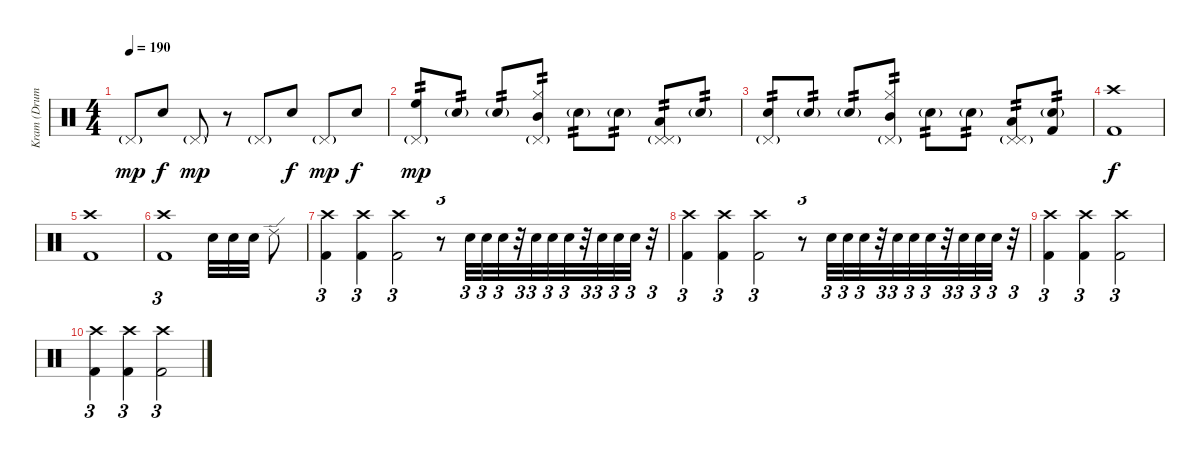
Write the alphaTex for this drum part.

\track ("Kram (Drums)" "Kram (Drum") {instrument percussion}
\staff {score}
\articulation defaults
\ts (4 4)
\tempo 190
\clef neutral
\ks c "Pedal Hi-Hat (hit)"{g}.8{dy mp} "Electric Snare (hit)".8{dy f} "Pedal Hi-Hat (hit)"{g}.8{dy mp}
r.8 "Pedal Hi-Hat (hit)"{g}.8 "Electric Snare (hit)".8{dy f} "Pedal Hi-Hat (hit)"{g}.8{dy mp} "Electric Snare (hit)".8{dy f} |
("High Floor Tom (hit)" "Pedal Hi-Hat (hit)"{g}).8{tp 2 dy mp volume 3} "Electric Snare (hit)"{g}.8{tp 2} "Electric Snare (hit)"{g}.8{tp 2} ("Hi-Hat (closed)" "Mid Tom (hit)" "Pedal Hi-Hat (hit)"{g}).8{tp 2} "Electric Snare (hit)"{g}.8{tp 2 volume 7} "Electric Snare (hit)"{g}.8{tp 2} ("Pedal Hi-Hat (hit)" "Low Tom (hit)" "Pedal Hi-Hat (hit)"{g}).8{tp 2} "Electric Snare (hit)"{g}.8{tp 2} |
("Snare (hit) 2" "Pedal Hi-Hat (hit)"{g}).8{tp 2 volume 8} "Electric Snare (hit)"{g}.8{tp 2} "Electric Snare (hit)"{g}.8{tp 2} ("Hi-Hat (closed)" "Mid Tom (hit)" "Pedal Hi-Hat (hit)"{g}).8{tp 2 volume 12} "Electric Snare (hit)"{g}.8{tp 2} "Electric Snare (hit)"{g}.8{tp 2} ("Pedal Hi-Hat (hit)" "Low Tom (hit)" "Pedal Hi-Hat (hit)"{g}).8{tp 2 volume 13} ("Kick (hit) 2" "Electric Snare (hit)"{g}).8{tp 2} |
("Kick (hit) 2" "Crash high (hit)").1{dy f} |
("Kick (hit) 2" "Crash high (hit)").1 |
("Kick (hit) 2" "Crash high (hit)").1{tu (3 2)} "Snare (hit) 2".32 "Snare (hit) 2".32 "Snare (hit) 2".32 "Ride (edge) 2".8 |
("Kick (hit) 2" "Crash high (hit)").4{tu (3 2)} ("Kick (hit) 2" "Crash high (hit)").4{tu (3 2)} ("Kick (hit) 2" "Crash high (hit)").2{tu (3 2)} r.8{tu (3 2)} "Snare (hit) 2".32{tu (3 2)} "Snare (hit) 2".32{tu (3 2)} "Snare (hit) 2".32{tu (3 2)} r.32{tu (3 2)} "Snare (hit) 2".32{tu (3 2)} "Snare (hit) 2".32{tu (3 2)} "Snare (hit) 2".32{tu (3 2)} r.32{tu (3 2)} "Snare (hit) 2".32{tu (3 2)} "Snare (hit) 2".32{tu (3 2)} "Snare (hit) 2".32{tu (3 2)} r.32{tu (3 2)} |
("Kick (hit) 2" "Crash high (hit)").4{tu (3 2)} ("Kick (hit) 2" "Crash high (hit)").4{tu (3 2)} ("Kick (hit) 2" "Crash high (hit)").2{tu (3 2)} r.8{tu (3 2)} "Snare (hit) 2".32{tu (3 2)} "Snare (hit) 2".32{tu (3 2)} "Snare (hit) 2".32{tu (3 2)} r.32{tu (3 2)} "Snare (hit) 2".32{tu (3 2)} "Snare (hit) 2".32{tu (3 2)} "Snare (hit) 2".32{tu (3 2)} r.32{tu (3 2)} "Snare (hit) 2".32{tu (3 2)} "Snare (hit) 2".32{tu (3 2)} "Snare (hit) 2".32{tu (3 2)} r.32{tu (3 2)} |
("Kick (hit) 2" "Crash high (hit)").4{tu (3 2)} ("Kick (hit) 2" "Crash high (hit)").4{tu (3 2)} ("Kick (hit) 2" "Crash high (hit)").2{tu (3 2)} |
("Kick (hit) 2" "Crash high (hit)").4{tu (3 2)} ("Kick (hit) 2" "Crash high (hit)").4{tu (3 2)} ("Kick (hit) 2" "Crash high (hit)").2{tu (3 2)}
